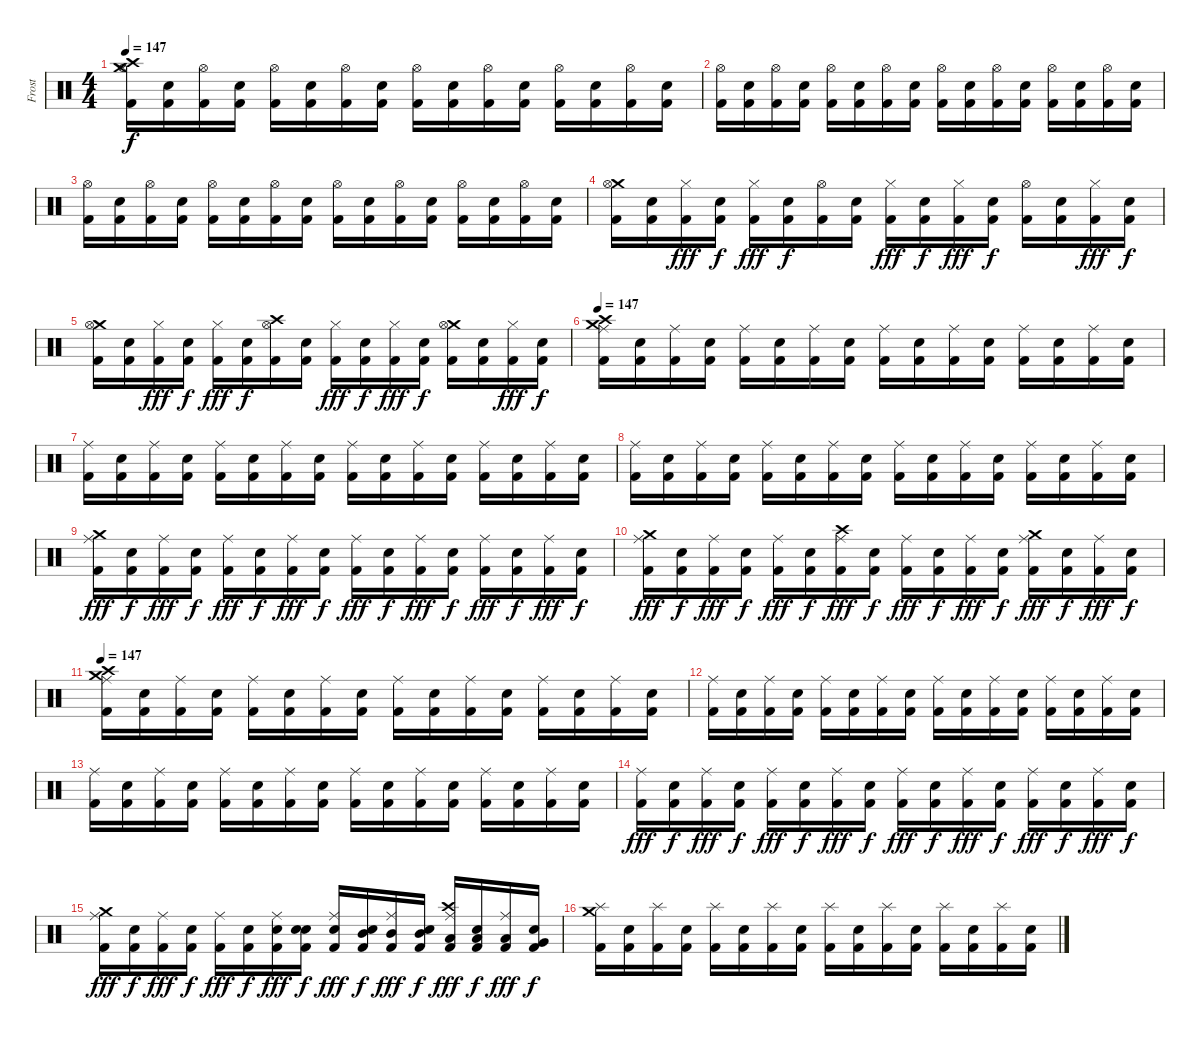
\track ("Frost" "Frost") {instrument percussion}
\staff {score}
\articulation defaults
\ts (4 4)
\tempo 147
\clef neutral
\ks c
("Kick (hit) 2" "Crash high (hit)" "Crash medium (hit)" "Hi-Hat (open)").16{dy f} ("Kick (hit) 2" "Electric Snare (hit)").16 ("Kick (hit) 2" "Hi-Hat (open)").16 ("Kick (hit) 2" "Electric Snare (hit)").16 ("Kick (hit) 2" "Hi-Hat (open)").16 ("Kick (hit) 2" "Electric Snare (hit)").16 ("Kick (hit) 2" "Hi-Hat (open)").16 ("Kick (hit) 2" "Electric Snare (hit)").16 ("Kick (hit) 2" "Hi-Hat (open)").16 ("Kick (hit) 2" "Electric Snare (hit)").16 ("Kick (hit) 2" "Hi-Hat (open)").16 ("Kick (hit) 2" "Electric Snare (hit)").16 ("Kick (hit) 2" "Hi-Hat (open)").16 ("Kick (hit) 2" "Electric Snare (hit)").16 ("Kick (hit) 2" "Hi-Hat (open)").16 ("Kick (hit) 2" "Electric Snare (hit)").16 |
("Kick (hit) 2" "Hi-Hat (open)").16 ("Kick (hit) 2" "Electric Snare (hit)").16 ("Kick (hit) 2" "Hi-Hat (open)").16 ("Kick (hit) 2" "Electric Snare (hit)").16 ("Kick (hit) 2" "Hi-Hat (open)").16 ("Kick (hit) 2" "Electric Snare (hit)").16 ("Kick (hit) 2" "Hi-Hat (open)").16 ("Kick (hit) 2" "Electric Snare (hit)").16 ("Kick (hit) 2" "Hi-Hat (open)").16 ("Kick (hit) 2" "Electric Snare (hit)").16 ("Kick (hit) 2" "Hi-Hat (open)").16 ("Kick (hit) 2" "Electric Snare (hit)").16 ("Kick (hit) 2" "Hi-Hat (open)").16 ("Kick (hit) 2" "Electric Snare (hit)").16 ("Kick (hit) 2" "Hi-Hat (open)").16 ("Kick (hit) 2" "Electric Snare (hit)").16 |
("Kick (hit) 2" "Hi-Hat (open)").16 ("Kick (hit) 2" "Electric Snare (hit)").16 ("Kick (hit) 2" "Hi-Hat (open)").16 ("Kick (hit) 2" "Electric Snare (hit)").16 ("Kick (hit) 2" "Hi-Hat (open)").16 ("Kick (hit) 2" "Electric Snare (hit)").16 ("Kick (hit) 2" "Hi-Hat (open)").16 ("Kick (hit) 2" "Electric Snare (hit)").16 ("Kick (hit) 2" "Hi-Hat (open)").16 ("Kick (hit) 2" "Electric Snare (hit)").16 ("Kick (hit) 2" "Hi-Hat (open)").16 ("Kick (hit) 2" "Electric Snare (hit)").16 ("Kick (hit) 2" "Hi-Hat (open)").16 ("Kick (hit) 2" "Electric Snare (hit)").16 ("Kick (hit) 2" "Hi-Hat (open)").16 ("Kick (hit) 2" "Electric Snare (hit)").16 |
("Kick (hit) 2" "Crash medium (hit)" "Hi-Hat (open)").16 ("Kick (hit) 2" "Electric Snare (hit)").16 ("Kick (hit) 2" "Hi-Hat (closed)").16{dy fff} ("Kick (hit) 2" "Electric Snare (hit)").16{dy f} ("Kick (hit) 2" "Hi-Hat (closed)").16{dy fff} ("Kick (hit) 2" "Electric Snare (hit)").16{dy f} ("Kick (hit) 2" "Hi-Hat (open)").16 ("Kick (hit) 2" "Electric Snare (hit)").16 ("Kick (hit) 2" "Hi-Hat (closed)").16{dy fff} ("Kick (hit) 2" "Electric Snare (hit)").16{dy f} ("Kick (hit) 2" "Hi-Hat (closed)").16{dy fff} ("Kick (hit) 2" "Electric Snare (hit)").16{dy f} ("Kick (hit) 2" "Hi-Hat (open)").16 ("Kick (hit) 2" "Electric Snare (hit)").16 ("Kick (hit) 2" "Hi-Hat (closed)").16{dy fff} ("Kick (hit) 2" "Electric Snare (hit)").16{dy f} |
("Kick (hit) 2" "Crash medium (hit)" "Hi-Hat (open)").16 ("Kick (hit) 2" "Electric Snare (hit)").16 ("Kick (hit) 2" "Hi-Hat (closed)").16{dy fff} ("Kick (hit) 2" "Electric Snare (hit)").16{dy f} ("Kick (hit) 2" "Hi-Hat (closed)").16{dy fff} ("Kick (hit) 2" "Electric Snare (hit)").16{dy f} ("Kick (hit) 2" "Crash high (hit)" "Hi-Hat (open)").16 ("Kick (hit) 2" "Electric Snare (hit)").16 ("Kick (hit) 2" "Hi-Hat (closed)").16{dy fff} ("Kick (hit) 2" "Electric Snare (hit)").16{dy f} ("Kick (hit) 2" "Hi-Hat (closed)").16{dy fff} ("Kick (hit) 2" "Electric Snare (hit)").16{dy f} ("Kick (hit) 2" "Crash medium (hit)" "Hi-Hat (open)").16 ("Kick (hit) 2" "Electric Snare (hit)").16 ("Kick (hit) 2" "Hi-Hat (closed)").16{dy fff} ("Kick (hit) 2" "Electric Snare (hit)").16{dy f} |
\tempo 147
("Kick (hit) 2" "Crash high (hit)" "Crash medium (hit)" "Ride (middle)").16 ("Kick (hit) 2" "Electric Snare (hit)").16 ("Kick (hit) 2" "Ride (middle)").16 ("Kick (hit) 2" "Electric Snare (hit)").16 ("Kick (hit) 2" "Ride (middle)").16 ("Kick (hit) 2" "Electric Snare (hit)").16 ("Kick (hit) 2" "Ride (middle)").16 ("Kick (hit) 2" "Electric Snare (hit)").16 ("Kick (hit) 2" "Ride (middle)").16 ("Kick (hit) 2" "Electric Snare (hit)").16 ("Kick (hit) 2" "Ride (middle)").16 ("Kick (hit) 2" "Electric Snare (hit)").16 ("Kick (hit) 2" "Ride (middle)").16 ("Kick (hit) 2" "Electric Snare (hit)").16 ("Kick (hit) 2" "Ride (middle)").16 ("Kick (hit) 2" "Electric Snare (hit)").16 |
("Kick (hit) 2" "Ride (middle)").16 ("Kick (hit) 2" "Electric Snare (hit)").16 ("Kick (hit) 2" "Ride (middle)").16 ("Kick (hit) 2" "Electric Snare (hit)").16 ("Kick (hit) 2" "Ride (middle)").16 ("Kick (hit) 2" "Electric Snare (hit)").16 ("Kick (hit) 2" "Ride (middle)").16 ("Kick (hit) 2" "Electric Snare (hit)").16 ("Kick (hit) 2" "Ride (middle)").16 ("Kick (hit) 2" "Electric Snare (hit)").16 ("Kick (hit) 2" "Ride (middle)").16 ("Kick (hit) 2" "Electric Snare (hit)").16 ("Kick (hit) 2" "Ride (middle)").16 ("Kick (hit) 2" "Electric Snare (hit)").16 ("Kick (hit) 2" "Ride (middle)").16 ("Kick (hit) 2" "Electric Snare (hit)").16 |
("Kick (hit) 2" "Ride (middle)").16 ("Kick (hit) 2" "Electric Snare (hit)").16 ("Kick (hit) 2" "Ride (middle)").16 ("Kick (hit) 2" "Electric Snare (hit)").16 ("Kick (hit) 2" "Ride (middle)").16 ("Kick (hit) 2" "Electric Snare (hit)").16 ("Kick (hit) 2" "Ride (middle)").16 ("Kick (hit) 2" "Electric Snare (hit)").16 ("Kick (hit) 2" "Ride (middle)").16 ("Kick (hit) 2" "Electric Snare (hit)").16 ("Kick (hit) 2" "Ride (middle)").16 ("Kick (hit) 2" "Electric Snare (hit)").16 ("Kick (hit) 2" "Ride (middle)").16 ("Kick (hit) 2" "Electric Snare (hit)").16 ("Kick (hit) 2" "Ride (middle)").16 ("Kick (hit) 2" "Electric Snare (hit)").16 |
("Kick (hit) 2" "Crash medium (hit)" "Ride (middle)").16{dy fff} ("Kick (hit) 2" "Electric Snare (hit)").16{dy f} ("Kick (hit) 2" "Ride (middle)").16{dy fff} ("Kick (hit) 2" "Electric Snare (hit)").16{dy f} ("Kick (hit) 2" "Ride (middle)").16{dy fff} ("Kick (hit) 2" "Electric Snare (hit)").16{dy f} ("Kick (hit) 2" "Ride (middle)").16{dy fff} ("Kick (hit) 2" "Electric Snare (hit)").16{dy f} ("Kick (hit) 2" "Ride (middle)").16{dy fff} ("Kick (hit) 2" "Electric Snare (hit)").16{dy f} ("Kick (hit) 2" "Ride (middle)").16{dy fff} ("Kick (hit) 2" "Electric Snare (hit)").16{dy f} ("Kick (hit) 2" "Ride (middle)").16{dy fff} ("Kick (hit) 2" "Electric Snare (hit)").16{dy f} ("Kick (hit) 2" "Ride (middle)").16{dy fff} ("Kick (hit) 2" "Electric Snare (hit)").16{dy f} |
("Kick (hit) 2" "Crash medium (hit)" "Ride (middle)").16{dy fff} ("Kick (hit) 2" "Electric Snare (hit)").16{dy f} ("Kick (hit) 2" "Ride (middle)").16{dy fff} ("Kick (hit) 2" "Electric Snare (hit)").16{dy f} ("Kick (hit) 2" "Ride (middle)").16{dy fff} ("Kick (hit) 2" "Electric Snare (hit)").16{dy f} ("Kick (hit) 2" "Crash high (hit)" "Ride (middle)").16{dy fff} ("Kick (hit) 2" "Electric Snare (hit)").16{dy f} ("Kick (hit) 2" "Ride (middle)").16{dy fff} ("Kick (hit) 2" "Electric Snare (hit)").16{dy f} ("Kick (hit) 2" "Ride (middle)").16{dy fff} ("Kick (hit) 2" "Electric Snare (hit)").16{dy f} ("Kick (hit) 2" "Crash medium (hit)" "Ride (middle)").16{dy fff} ("Kick (hit) 2" "Electric Snare (hit)").16{dy f} ("Kick (hit) 2" "Ride (middle)").16{dy fff} ("Kick (hit) 2" "Electric Snare (hit)").16{dy f} |
\tempo 147
("Kick (hit) 2" "Crash high (hit)" "Crash medium (hit)" "Ride (middle)").16 ("Kick (hit) 2" "Electric Snare (hit)").16 ("Kick (hit) 2" "Ride (middle)").16 ("Kick (hit) 2" "Electric Snare (hit)").16 ("Kick (hit) 2" "Ride (middle)").16 ("Kick (hit) 2" "Electric Snare (hit)").16 ("Kick (hit) 2" "Ride (middle)").16 ("Kick (hit) 2" "Electric Snare (hit)").16 ("Kick (hit) 2" "Ride (middle)").16 ("Kick (hit) 2" "Electric Snare (hit)").16 ("Kick (hit) 2" "Ride (middle)").16 ("Kick (hit) 2" "Electric Snare (hit)").16 ("Kick (hit) 2" "Ride (middle)").16 ("Kick (hit) 2" "Electric Snare (hit)").16 ("Kick (hit) 2" "Ride (middle)").16 ("Kick (hit) 2" "Electric Snare (hit)").16 |
("Kick (hit) 2" "Ride (middle)").16 ("Kick (hit) 2" "Electric Snare (hit)").16 ("Kick (hit) 2" "Ride (middle)").16 ("Kick (hit) 2" "Electric Snare (hit)").16 ("Kick (hit) 2" "Ride (middle)").16 ("Kick (hit) 2" "Electric Snare (hit)").16 ("Kick (hit) 2" "Ride (middle)").16 ("Kick (hit) 2" "Electric Snare (hit)").16 ("Kick (hit) 2" "Ride (middle)").16 ("Kick (hit) 2" "Electric Snare (hit)").16 ("Kick (hit) 2" "Ride (middle)").16 ("Kick (hit) 2" "Electric Snare (hit)").16 ("Kick (hit) 2" "Ride (middle)").16 ("Kick (hit) 2" "Electric Snare (hit)").16 ("Kick (hit) 2" "Ride (middle)").16 ("Kick (hit) 2" "Electric Snare (hit)").16 |
("Kick (hit) 2" "Ride (middle)").16 ("Kick (hit) 2" "Electric Snare (hit)").16 ("Kick (hit) 2" "Ride (middle)").16 ("Kick (hit) 2" "Electric Snare (hit)").16 ("Kick (hit) 2" "Ride (middle)").16 ("Kick (hit) 2" "Electric Snare (hit)").16 ("Kick (hit) 2" "Ride (middle)").16 ("Kick (hit) 2" "Electric Snare (hit)").16 ("Kick (hit) 2" "Ride (middle)").16 ("Kick (hit) 2" "Electric Snare (hit)").16 ("Kick (hit) 2" "Ride (middle)").16 ("Kick (hit) 2" "Electric Snare (hit)").16 ("Kick (hit) 2" "Ride (middle)").16 ("Kick (hit) 2" "Electric Snare (hit)").16 ("Kick (hit) 2" "Ride (middle)").16 ("Kick (hit) 2" "Electric Snare (hit)").16 |
("Kick (hit) 2" "Ride (middle)").16{dy fff} ("Kick (hit) 2" "Electric Snare (hit)").16{dy f} ("Kick (hit) 2" "Ride (middle)").16{dy fff} ("Kick (hit) 2" "Electric Snare (hit)").16{dy f} ("Kick (hit) 2" "Ride (middle)").16{dy fff} ("Kick (hit) 2" "Electric Snare (hit)").16{dy f} ("Kick (hit) 2" "Ride (middle)").16{dy fff} ("Kick (hit) 2" "Electric Snare (hit)").16{dy f} ("Kick (hit) 2" "Ride (middle)").16{dy fff} ("Kick (hit) 2" "Electric Snare (hit)").16{dy f} ("Kick (hit) 2" "Ride (middle)").16{dy fff} ("Kick (hit) 2" "Electric Snare (hit)").16{dy f} ("Kick (hit) 2" "Ride (middle)").16{dy fff} ("Kick (hit) 2" "Electric Snare (hit)").16{dy f} ("Kick (hit) 2" "Ride (middle)").16{dy fff} ("Kick (hit) 2" "Electric Snare (hit)").16{dy f} |
("Kick (hit) 2" "Crash medium (hit)" "Ride (middle)").16{dy fff} ("Kick (hit) 2" "Electric Snare (hit)").16{dy f} ("Kick (hit) 2" "Ride (middle)").16{dy fff} ("Kick (hit) 2" "Electric Snare (hit)").16{dy f} ("Kick (hit) 2" "Ride (middle)").16{dy fff} ("Kick (hit) 2" "Electric Snare (hit)").16{dy f} ("Kick (hit) 2" "Snare (hit) 2" "Ride (middle)").16{dy fff} ("Kick (hit) 2" "Snare (hit) 2" "Electric Snare (hit)").16{dy f} ("Kick (hit) 2" "Snare (hit) 2" "Ride (middle)").16{dy fff} ("Kick (hit) 2" "Mid Tom (hit)" "Electric Snare (hit)").16{dy f} ("Kick (hit) 2" "Mid Tom (hit)" "Ride (middle)").16{dy fff} ("Kick (hit) 2" "Mid Tom (hit)" "Electric Snare (hit)").16{dy f} ("Kick (hit) 2" "Low Tom (hit)" "Crash high (hit)" "Ride (middle)").16{dy fff} ("Kick (hit) 2" "Low Tom (hit)" "Electric Snare (hit)").16{dy f} ("Kick (hit) 2" "Low Tom (hit)" "Ride (middle)").16{dy fff} ("Kick (hit) 2" "Very Low Tom (hit)" "Electric Snare (hit)").16{dy f} |
("Kick (hit) 2" "Crash medium (hit)" "Splash (hit)").16 ("Kick (hit) 2" "Electric Snare (hit)").16 ("Kick (hit) 2" "Splash (hit)").16 ("Kick (hit) 2" "Electric Snare (hit)").16 ("Kick (hit) 2" "Splash (hit)").16 ("Kick (hit) 2" "Electric Snare (hit)").16 ("Kick (hit) 2" "Splash (hit)").16 ("Kick (hit) 2" "Electric Snare (hit)").16 ("Kick (hit) 2" "Splash (hit)").16 ("Kick (hit) 2" "Electric Snare (hit)").16 ("Kick (hit) 2" "Splash (hit)").16 ("Kick (hit) 2" "Electric Snare (hit)").16 ("Kick (hit) 2" "Splash (hit)").16 ("Kick (hit) 2" "Electric Snare (hit)").16 ("Kick (hit) 2" "Splash (hit)").16 ("Kick (hit) 2" "Electric Snare (hit)").16
